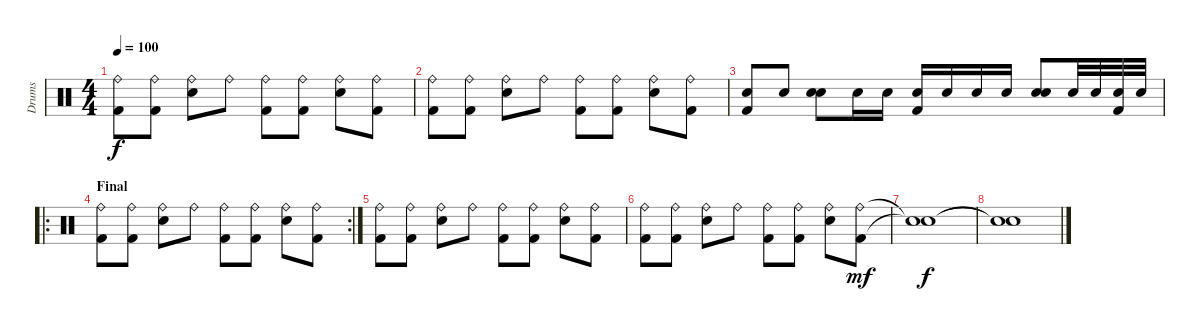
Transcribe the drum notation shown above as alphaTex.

\track ("Drums" "Drums") {instrument percussion}
\staff {score}
\articulation defaults
\ts (4 4)
\tempo 100
\clef neutral
\ks c
("Kick (hit) 2" "Ride (bell)").8{dy f} ("Kick (hit) 2" "Ride (bell)").8 ("Snare (hit) 2" "Ride (bell)").8 "Ride (bell)".8 ("Kick (hit) 2" "Ride (bell)").8 ("Kick (hit) 2" "Ride (bell)").8 ("Snare (hit) 2" "Ride (bell)").8 ("Kick (hit) 2" "Ride (bell)").8 |
("Kick (hit) 2" "Ride (bell)").8 ("Kick (hit) 2" "Ride (bell)").8 ("Snare (hit) 2" "Ride (bell)").8 "Ride (bell)".8 ("Kick (hit) 2" "Ride (bell)").8 ("Kick (hit) 2" "Ride (bell)").8 ("Snare (hit) 2" "Ride (bell)").8 ("Kick (hit) 2" "Ride (bell)").8 |
("Kick (hit) 2" "Electric Snare (hit)").8 "Electric Snare (hit)".8 ("Hand Clap (hit)" "Electric Snare (hit)").8 "Electric Snare (hit)".16 "Electric Snare (hit)".16 ("Kick (hit) 2" "Electric Snare (hit)").16 "Electric Snare (hit)".16 "Electric Snare (hit)".16 "Electric Snare (hit)".16 ("Hand Clap (hit)" "Electric Snare (hit)").8 "Electric Snare (hit)".32 "Electric Snare (hit)".32 ("Kick (hit) 2" "Electric Snare (hit)").32 "Electric Snare (hit)".32 |
\ro
\rc 2
\section ("" "Final")
("Kick (hit) 2" "Ride (bell)").8 ("Kick (hit) 2" "Ride (bell)").8 ("Snare (hit) 2" "Ride (bell)").8 "Ride (bell)".8 ("Kick (hit) 2" "Ride (bell)").8 ("Kick (hit) 2" "Ride (bell)").8 ("Snare (hit) 2" "Ride (bell)").8 ("Kick (hit) 2" "Ride (bell)").8 |
("Kick (hit) 2" "Ride (bell)").8 ("Kick (hit) 2" "Ride (bell)").8 ("Snare (hit) 2" "Ride (bell)").8 "Ride (bell)".8 ("Kick (hit) 2" "Ride (bell)").8 ("Kick (hit) 2" "Ride (bell)").8 ("Snare (hit) 2" "Ride (bell)").8 ("Kick (hit) 2" "Ride (bell)").8 |
("Kick (hit) 2" "Ride (bell)").8 ("Kick (hit) 2" "Ride (bell)").8 ("Snare (hit) 2" "Ride (bell)").8 "Ride (bell)".8 ("Kick (hit) 2" "Ride (bell)").8 ("Kick (hit) 2" "Ride (bell)").8 ("Snare (hit) 2" "Ride (bell)").8 ("Kick (hit) 2" "Ride (bell)").8{dy mf} |
("Snare (hit)"{t} "Snare (hit)"{t}).1{dy f} |
("Snare (hit)"{t} "Snare (hit)"{t}).1
